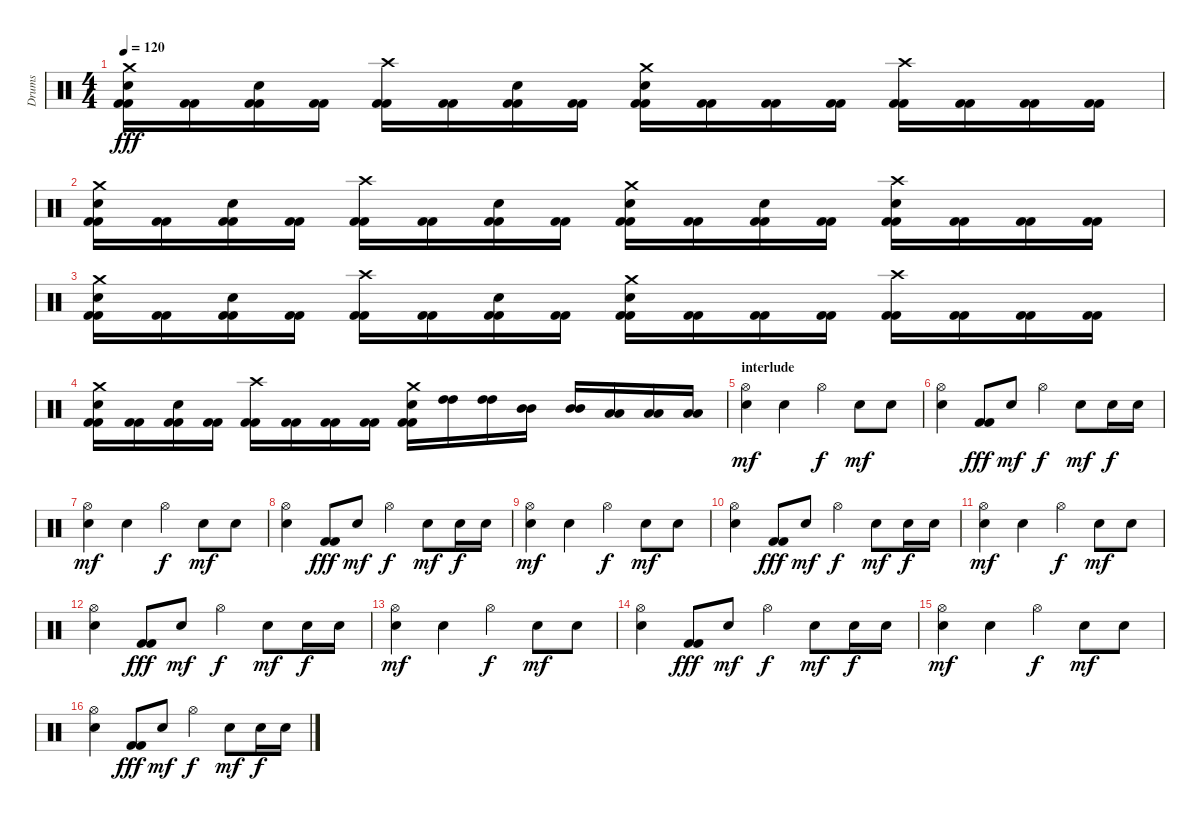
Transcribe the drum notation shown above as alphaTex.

\track ("Drums" "Drums") {instrument percussion}
\staff {score}
\articulation defaults
\ts (4 4)
\tempo 120
\clef neutral
\ks c
("Crash medium (hit)" "Electric Snare (hit)" "Kick (hit) 2" "Kick (hit) 2").16{dy fff} ("Kick (hit) 2" "Kick (hit) 2").16 ("Electric Snare (hit)" "Kick (hit) 2" "Kick (hit) 2").16 ("Kick (hit) 2" "Kick (hit) 2").16 ("Crash high (hit)" "Kick (hit) 2" "Kick (hit) 2").16 ("Kick (hit) 2" "Kick (hit) 2").16 ("Electric Snare (hit)" "Kick (hit) 2" "Kick (hit) 2").16 ("Kick (hit) 2" "Kick (hit) 2").16 ("Crash medium (hit)" "Electric Snare (hit)" "Kick (hit) 2" "Kick (hit) 2").16 ("Kick (hit) 2" "Kick (hit) 2").16 ("Kick (hit) 2" "Kick (hit) 2").16 ("Kick (hit) 2" "Kick (hit) 2").16 ("Crash high (hit)" "Kick (hit) 2" "Kick (hit) 2").16 ("Kick (hit) 2" "Kick (hit) 2").16 ("Kick (hit) 2" "Kick (hit) 2").16 ("Kick (hit) 2" "Kick (hit) 2").16 |
("Crash medium (hit)" "Electric Snare (hit)" "Kick (hit) 2" "Kick (hit) 2").16 ("Kick (hit) 2" "Kick (hit) 2").16 ("Electric Snare (hit)" "Kick (hit) 2" "Kick (hit) 2").16 ("Kick (hit) 2" "Kick (hit) 2").16 ("Crash high (hit)" "Kick (hit) 2" "Kick (hit) 2").16 ("Kick (hit) 2" "Kick (hit) 2").16 ("Electric Snare (hit)" "Kick (hit) 2" "Kick (hit) 2").16 ("Kick (hit) 2" "Kick (hit) 2").16 ("Crash medium (hit)" "Electric Snare (hit)" "Kick (hit) 2" "Kick (hit) 2").16 ("Kick (hit) 2" "Kick (hit) 2").16 ("Electric Snare (hit)" "Kick (hit) 2" "Kick (hit) 2").16 ("Kick (hit) 2" "Kick (hit) 2").16 ("Crash high (hit)" "Electric Snare (hit)" "Kick (hit) 2" "Kick (hit) 2").16 ("Kick (hit) 2" "Kick (hit) 2").16 ("Kick (hit) 2" "Kick (hit) 2").16 ("Kick (hit) 2" "Kick (hit) 2").16 |
("Crash medium (hit)" "Electric Snare (hit)" "Kick (hit) 2" "Kick (hit) 2").16 ("Kick (hit) 2" "Kick (hit) 2").16 ("Electric Snare (hit)" "Kick (hit) 2" "Kick (hit) 2").16 ("Kick (hit) 2" "Kick (hit) 2").16 ("Crash high (hit)" "Kick (hit) 2" "Kick (hit) 2").16 ("Kick (hit) 2" "Kick (hit) 2").16 ("Electric Snare (hit)" "Kick (hit) 2" "Kick (hit) 2").16 ("Kick (hit) 2" "Kick (hit) 2").16 ("Crash medium (hit)" "Electric Snare (hit)" "Kick (hit) 2" "Kick (hit) 2").16 ("Kick (hit) 2" "Kick (hit) 2").16 ("Kick (hit) 2" "Kick (hit) 2").16 ("Kick (hit) 2" "Kick (hit) 2").16 ("Crash high (hit)" "Kick (hit) 2" "Kick (hit) 2").16 ("Kick (hit) 2" "Kick (hit) 2").16 ("Kick (hit) 2" "Kick (hit) 2").16 ("Kick (hit) 2" "Kick (hit) 2").16 |
("Crash medium (hit)" "Electric Snare (hit)" "Kick (hit) 2" "Kick (hit) 2").16 ("Kick (hit) 2" "Kick (hit) 2").16 ("Electric Snare (hit)" "Kick (hit) 2" "Kick (hit) 2").16 ("Kick (hit) 2" "Kick (hit) 2").16 ("Crash high (hit)" "Kick (hit) 2" "Kick (hit) 2").16 ("Kick (hit) 2" "Kick (hit) 2").16 ("Kick (hit) 2" "Kick (hit) 2").16 ("Kick (hit) 2" "Kick (hit) 2").16 ("Crash medium (hit)" "Electric Snare (hit)" "Kick (hit) 2" "Kick (hit) 2").16 ("High Tom (hit)" "High Tom (hit)").16 ("High Tom (hit)" "High Tom (hit)").16 ("Mid Tom (hit)" "Mid Tom (hit)").16 ("Mid Tom (hit)" "Mid Tom (hit)").16 ("Low Tom (hit)" "Low Tom (hit)").16 ("Low Tom (hit)" "Low Tom (hit)").16 ("Low Tom (hit)" "Low Tom (hit)").16 |
\section ("" "interlude")
("Electric Snare (hit)" "Hi-Hat (open)").4{dy mf} "Electric Snare (hit)".4 "Hi-Hat (open)".4{dy f} "Electric Snare (hit)".8{dy mf} "Electric Snare (hit)".8 |
("Electric Snare (hit)" "Hi-Hat (open)").4 ("Kick (hit) 2" "Kick (hit) 2").8{dy fff} "Electric Snare (hit)".8{dy mf} "Hi-Hat (open)".4{dy f} "Electric Snare (hit)".8{dy mf} "Electric Snare (hit)".16{dy f} "Electric Snare (hit)".16 |
("Electric Snare (hit)" "Hi-Hat (open)").4{dy mf} "Electric Snare (hit)".4 "Hi-Hat (open)".4{dy f} "Electric Snare (hit)".8{dy mf} "Electric Snare (hit)".8 |
("Electric Snare (hit)" "Hi-Hat (open)").4 ("Kick (hit) 2" "Kick (hit) 2").8{dy fff} "Electric Snare (hit)".8{dy mf} "Hi-Hat (open)".4{dy f} "Electric Snare (hit)".8{dy mf} "Electric Snare (hit)".16{dy f} "Electric Snare (hit)".16 |
("Electric Snare (hit)" "Hi-Hat (open)").4{dy mf} "Electric Snare (hit)".4 "Hi-Hat (open)".4{dy f} "Electric Snare (hit)".8{dy mf} "Electric Snare (hit)".8 |
("Electric Snare (hit)" "Hi-Hat (open)").4 ("Kick (hit) 2" "Kick (hit) 2").8{dy fff} "Electric Snare (hit)".8{dy mf} "Hi-Hat (open)".4{dy f} "Electric Snare (hit)".8{dy mf} "Electric Snare (hit)".16{dy f} "Electric Snare (hit)".16 |
("Electric Snare (hit)" "Hi-Hat (open)").4{dy mf} "Electric Snare (hit)".4 "Hi-Hat (open)".4{dy f} "Electric Snare (hit)".8{dy mf} "Electric Snare (hit)".8 |
("Electric Snare (hit)" "Hi-Hat (open)").4 ("Kick (hit) 2" "Kick (hit) 2").8{dy fff} "Electric Snare (hit)".8{dy mf} "Hi-Hat (open)".4{dy f} "Electric Snare (hit)".8{dy mf} "Electric Snare (hit)".16{dy f} "Electric Snare (hit)".16 |
("Electric Snare (hit)" "Hi-Hat (open)").4{dy mf} "Electric Snare (hit)".4 "Hi-Hat (open)".4{dy f} "Electric Snare (hit)".8{dy mf} "Electric Snare (hit)".8 |
("Electric Snare (hit)" "Hi-Hat (open)").4 ("Kick (hit) 2" "Kick (hit) 2").8{dy fff} "Electric Snare (hit)".8{dy mf} "Hi-Hat (open)".4{dy f} "Electric Snare (hit)".8{dy mf} "Electric Snare (hit)".16{dy f} "Electric Snare (hit)".16 |
("Electric Snare (hit)" "Hi-Hat (open)").4{dy mf} "Electric Snare (hit)".4 "Hi-Hat (open)".4{dy f} "Electric Snare (hit)".8{dy mf} "Electric Snare (hit)".8 |
("Electric Snare (hit)" "Hi-Hat (open)").4 ("Kick (hit) 2" "Kick (hit) 2").8{dy fff} "Electric Snare (hit)".8{dy mf} "Hi-Hat (open)".4{dy f} "Electric Snare (hit)".8{dy mf} "Electric Snare (hit)".16{dy f} "Electric Snare (hit)".16
